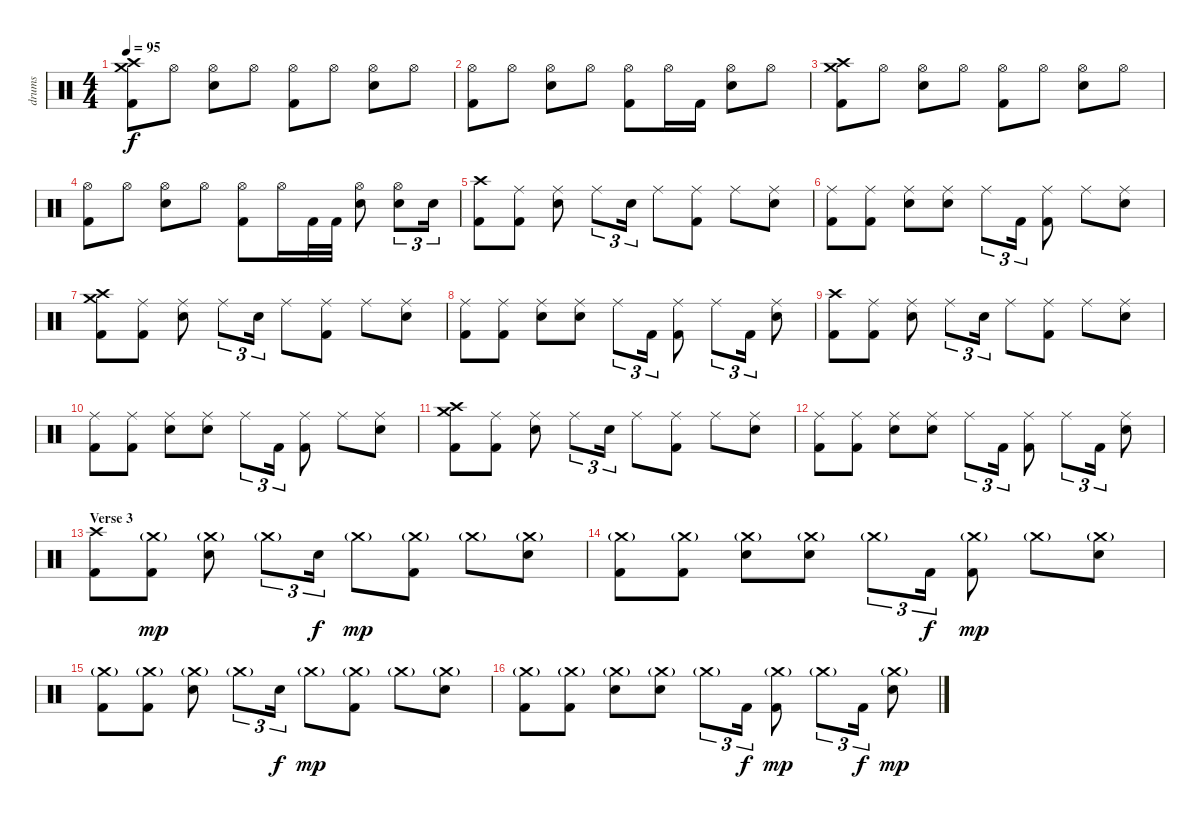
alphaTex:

\track ("drums" "drums") {instrument percussion}
\staff {score}
\articulation defaults
\ts (4 4)
\tempo 95
\clef neutral
\ks c
("Crash high (hit)" "Crash medium (hit)" "Kick (hit) 2").8{dy f} "Hi-Hat (open)".8 ("Hi-Hat (open)" "Electric Snare (hit)").8 "Hi-Hat (open)".8 ("Hi-Hat (open)" "Kick (hit) 2").8 "Hi-Hat (open)".8 ("Hi-Hat (open)" "Electric Snare (hit)").8 "Hi-Hat (open)".8 |
("Hi-Hat (open)" "Kick (hit) 2").8 "Hi-Hat (open)".8 ("Hi-Hat (open)" "Electric Snare (hit)").8 "Hi-Hat (open)".8 ("Hi-Hat (open)" "Kick (hit) 2").8 "Hi-Hat (open)".16 "Kick (hit) 2".16 ("Hi-Hat (open)" "Electric Snare (hit)").8 "Hi-Hat (open)".8 |
("Crash high (hit)" "Crash medium (hit)" "Kick (hit) 2").8 "Hi-Hat (open)".8 ("Hi-Hat (open)" "Electric Snare (hit)").8 "Hi-Hat (open)".8 ("Hi-Hat (open)" "Kick (hit) 2").8 "Hi-Hat (open)".8 ("Hi-Hat (open)" "Electric Snare (hit)").8 "Hi-Hat (open)".8 |
("Hi-Hat (open)" "Kick (hit) 2").8 "Hi-Hat (open)".8 ("Hi-Hat (open)" "Electric Snare (hit)").8 "Hi-Hat (open)".8 ("Hi-Hat (open)" "Kick (hit) 2").8 "Hi-Hat (open)".16 "Kick (hit) 2".32 "Kick (hit) 2".32 ("Hi-Hat (open)" "Electric Snare (hit)").8 ("Hi-Hat (open)" "Electric Snare (hit)").8{tu (3 2)} "Electric Snare (hit)".16{tu (3 2)} |
("Crash high (hit)" "Kick (hit) 2").8 ("Ride (middle)" "Kick (hit) 2").8 ("Ride (middle)" "Electric Snare (hit)").8 "Ride (middle)".8{tu (3 2)} "Electric Snare (hit)".16{tu (3 2)} "Ride (middle)".8 ("Ride (middle)" "Kick (hit) 2").8 "Ride (middle)".8 ("Ride (middle)" "Electric Snare (hit)").8 |
("Ride (middle)" "Kick (hit) 2").8 ("Ride (middle)" "Kick (hit) 2").8 ("Ride (middle)" "Electric Snare (hit)").8 ("Ride (middle)" "Electric Snare (hit)").8 "Ride (middle)".8{tu (3 2)} "Kick (hit) 2".16{tu (3 2)} ("Ride (middle)" "Kick (hit) 2").8 "Ride (middle)".8 ("Ride (middle)" "Electric Snare (hit)").8 |
("Crash high (hit)" "Crash medium (hit)" "Kick (hit) 2").8 ("Ride (middle)" "Kick (hit) 2").8 ("Ride (middle)" "Electric Snare (hit)").8 "Ride (middle)".8{tu (3 2)} "Electric Snare (hit)".16{tu (3 2)} "Ride (middle)".8 ("Ride (middle)" "Kick (hit) 2").8 "Ride (middle)".8 ("Ride (middle)" "Electric Snare (hit)").8 |
("Ride (middle)" "Kick (hit) 2").8 ("Ride (middle)" "Kick (hit) 2").8 ("Ride (middle)" "Electric Snare (hit)").8 ("Ride (middle)" "Electric Snare (hit)").8 "Ride (middle)".8{tu (3 2)} "Kick (hit) 2".16{tu (3 2)} ("Ride (middle)" "Kick (hit) 2").8 "Ride (middle)".8{tu (3 2)} "Kick (hit) 2".16{tu (3 2)} ("Ride (middle)" "Electric Snare (hit)").8 |
("Crash high (hit)" "Kick (hit) 2").8 ("Ride (middle)" "Kick (hit) 2").8 ("Ride (middle)" "Electric Snare (hit)").8 "Ride (middle)".8{tu (3 2)} "Electric Snare (hit)".16{tu (3 2)} "Ride (middle)".8 ("Ride (middle)" "Kick (hit) 2").8 "Ride (middle)".8 ("Ride (middle)" "Electric Snare (hit)").8 |
("Ride (middle)" "Kick (hit) 2").8 ("Ride (middle)" "Kick (hit) 2").8 ("Ride (middle)" "Electric Snare (hit)").8 ("Ride (middle)" "Electric Snare (hit)").8 "Ride (middle)".8{tu (3 2)} "Kick (hit) 2".16{tu (3 2)} ("Ride (middle)" "Kick (hit) 2").8 "Ride (middle)".8 ("Ride (middle)" "Electric Snare (hit)").8 |
("Crash high (hit)" "Crash medium (hit)" "Kick (hit) 2").8 ("Ride (middle)" "Kick (hit) 2").8 ("Ride (middle)" "Electric Snare (hit)").8 "Ride (middle)".8{tu (3 2)} "Electric Snare (hit)".16{tu (3 2)} "Ride (middle)".8 ("Ride (middle)" "Kick (hit) 2").8 "Ride (middle)".8 ("Ride (middle)" "Electric Snare (hit)").8 |
("Ride (middle)" "Kick (hit) 2").8 ("Ride (middle)" "Kick (hit) 2").8 ("Ride (middle)" "Electric Snare (hit)").8 ("Ride (middle)" "Electric Snare (hit)").8 "Ride (middle)".8{tu (3 2)} "Kick (hit) 2".16{tu (3 2)} ("Ride (middle)" "Kick (hit) 2").8 "Ride (middle)".8{tu (3 2)} "Kick (hit) 2".16{tu (3 2)} ("Ride (middle)" "Electric Snare (hit)").8 |
\section ("" "Verse 3")
("Crash high (hit)" "Kick (hit) 2").8 ("Crash medium (hit)"{g} "Kick (hit) 2").8{dy mp} ("Crash medium (hit)"{g} "Electric Snare (hit)").8 "Crash medium (hit)"{g}.8{tu (3 2)} "Electric Snare (hit)".16{tu (3 2) dy f} "Crash medium (hit)"{g}.8{dy mp} ("Crash medium (hit)"{g} "Kick (hit) 2").8 "Crash medium (hit)"{g}.8 ("Crash medium (hit)"{g} "Electric Snare (hit)").8 |
("Crash medium (hit)"{g} "Kick (hit) 2").8 ("Crash medium (hit)"{g} "Kick (hit) 2").8 ("Crash medium (hit)"{g} "Electric Snare (hit)").8 ("Crash medium (hit)"{g} "Electric Snare (hit)").8 "Crash medium (hit)"{g}.8{tu (3 2)} "Kick (hit) 2".16{tu (3 2) dy f} ("Crash medium (hit)"{g} "Kick (hit) 2").8{dy mp} "Crash medium (hit)"{g}.8 ("Crash medium (hit)"{g} "Electric Snare (hit)").8 |
("Crash medium (hit)"{g} "Kick (hit) 2").8 ("Crash medium (hit)"{g} "Kick (hit) 2").8 ("Crash medium (hit)"{g} "Electric Snare (hit)").8 "Crash medium (hit)"{g}.8{tu (3 2)} "Electric Snare (hit)".16{tu (3 2) dy f} "Crash medium (hit)"{g}.8{dy mp} ("Crash medium (hit)"{g} "Kick (hit) 2").8 "Crash medium (hit)"{g}.8 ("Crash medium (hit)"{g} "Electric Snare (hit)").8 |
("Crash medium (hit)"{g} "Kick (hit) 2").8 ("Crash medium (hit)"{g} "Kick (hit) 2").8 ("Crash medium (hit)"{g} "Electric Snare (hit)").8 ("Crash medium (hit)"{g} "Electric Snare (hit)").8 "Crash medium (hit)"{g}.8{tu (3 2)} "Kick (hit) 2".16{tu (3 2) dy f} ("Crash medium (hit)"{g} "Kick (hit) 2").8{dy mp} "Crash medium (hit)"{g}.8{tu (3 2)} "Kick (hit) 2".16{tu (3 2) dy f} ("Crash medium (hit)"{g} "Electric Snare (hit)").8{dy mp}
